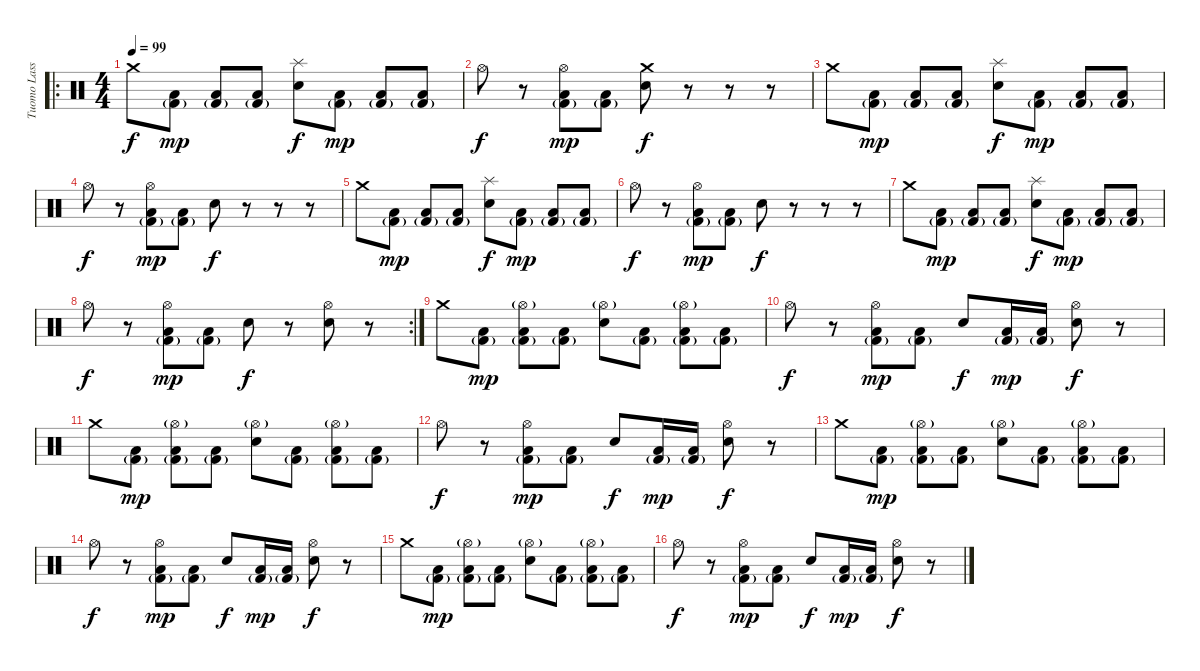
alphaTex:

\track ("Tuomo Lassila" "Tuomo Lass") {instrument percussion}
\staff {score}
\articulation defaults
\ro
\ts (4 4)
\tempo 99
\clef neutral
\ks c "Crash medium (hit)".8{dy f balance 8}
("Kick (hit) 2"{g} "Low Floor Tom (hit)").8{dy mp} ("Kick (hit) 2"{g} "Low Floor Tom (hit)").8 ("Kick (hit) 2"{g} "Low Floor Tom (hit)").8 ("Splash (hit)" "Electric Snare (hit)").8{dy f} ("Kick (hit) 2"{g} "Low Floor Tom (hit)").8{dy mp} ("Kick (hit) 2"{g} "Low Floor Tom (hit)").8 ("Kick (hit) 2"{g} "Low Floor Tom (hit)").8 |
"Hi-Hat (open)".8{dy f} r.8 ("Hi-Hat (open)" "Kick (hit) 2"{g} "Low Floor Tom (hit)").8{dy mp} ("Kick (hit) 2"{g} "Low Floor Tom (hit)").8 ("Crash medium (hit)" "Electric Snare (hit)").8{dy f} r.8 r.8 r.8 |
"Crash medium (hit)".8 ("Kick (hit) 2"{g} "Low Floor Tom (hit)").8{dy mp} ("Kick (hit) 2"{g} "Low Floor Tom (hit)").8 ("Kick (hit) 2"{g} "Low Floor Tom (hit)").8 ("Splash (hit)" "Electric Snare (hit)").8{dy f} ("Kick (hit) 2"{g} "Low Floor Tom (hit)").8{dy mp} ("Kick (hit) 2"{g} "Low Floor Tom (hit)").8 ("Kick (hit) 2"{g} "Low Floor Tom (hit)").8 |
"Hi-Hat (open)".8{dy f} r.8 ("Hi-Hat (open)" "Kick (hit) 2"{g} "Low Floor Tom (hit)").8{dy mp} ("Kick (hit) 2"{g} "Low Floor Tom (hit)").8 "Electric Snare (hit)".8{dy f} r.8 r.8 r.8 |
"Crash medium (hit)".8 ("Kick (hit) 2"{g} "Low Floor Tom (hit)").8{dy mp} ("Kick (hit) 2"{g} "Low Floor Tom (hit)").8 ("Kick (hit) 2"{g} "Low Floor Tom (hit)").8 ("Splash (hit)" "Electric Snare (hit)").8{dy f} ("Kick (hit) 2"{g} "Low Floor Tom (hit)").8{dy mp} ("Kick (hit) 2"{g} "Low Floor Tom (hit)").8 ("Kick (hit) 2"{g} "Low Floor Tom (hit)").8 |
"Hi-Hat (open)".8{dy f} r.8 ("Hi-Hat (open)" "Kick (hit) 2"{g} "Low Floor Tom (hit)").8{dy mp} ("Kick (hit) 2"{g} "Low Floor Tom (hit)").8 "Electric Snare (hit)".8{dy f} r.8 r.8 r.8 |
"Crash medium (hit)".8 ("Kick (hit) 2"{g} "Low Floor Tom (hit)").8{dy mp} ("Kick (hit) 2"{g} "Low Floor Tom (hit)").8 ("Kick (hit) 2"{g} "Low Floor Tom (hit)").8 ("Splash (hit)" "Electric Snare (hit)").8{dy f} ("Kick (hit) 2"{g} "Low Floor Tom (hit)").8{dy mp} ("Kick (hit) 2"{g} "Low Floor Tom (hit)").8 ("Kick (hit) 2"{g} "Low Floor Tom (hit)").8 |
\rc 2 "Hi-Hat (open)".8{dy f}
r.8 ("Hi-Hat (open)" "Kick (hit) 2"{g} "Low Floor Tom (hit)").8{dy mp} ("Kick (hit) 2"{g} "Low Floor Tom (hit)").8 "Electric Snare (hit)".8{dy f} r.8 ("Electric Snare (hit)" "Hi-Hat (open)").8 r.8 |
"Crash medium (hit)".8{volume 4} ("Kick (hit) 2"{g} "Low Floor Tom (hit)").8{dy mp} ("Kick (hit) 2"{g} "Low Floor Tom (hit)" "Hi-Hat (open)"{g}).8 ("Kick (hit) 2"{g} "Low Floor Tom (hit)").8 ("Electric Snare (hit)" "Hi-Hat (open)"{g}).8 ("Kick (hit) 2"{g} "Low Floor Tom (hit)").8 ("Kick (hit) 2"{g} "Low Floor Tom (hit)" "Hi-Hat (open)"{g}).8 ("Kick (hit) 2"{g} "Low Floor Tom (hit)").8 |
"Hi-Hat (open)".8{dy f} r.8 ("Hi-Hat (open)" "Kick (hit) 2"{g} "Low Floor Tom (hit)").8{dy mp} ("Kick (hit) 2"{g} "Low Floor Tom (hit)").8 "Electric Snare (hit)".8{dy f} ("Kick (hit) 2"{g} "Low Floor Tom (hit)").16{dy mp} ("Kick (hit) 2"{g} "Low Floor Tom (hit)").16 ("Hi-Hat (open)" "Electric Snare (hit)").8{dy f} r.8 |
"Crash medium (hit)".8 ("Kick (hit) 2"{g} "Low Floor Tom (hit)").8{dy mp} ("Kick (hit) 2"{g} "Low Floor Tom (hit)" "Hi-Hat (open)"{g}).8 ("Kick (hit) 2"{g} "Low Floor Tom (hit)").8 ("Electric Snare (hit)" "Hi-Hat (open)"{g}).8 ("Kick (hit) 2"{g} "Low Floor Tom (hit)").8 ("Kick (hit) 2"{g} "Low Floor Tom (hit)" "Hi-Hat (open)"{g}).8 ("Kick (hit) 2"{g} "Low Floor Tom (hit)").8 |
"Hi-Hat (open)".8{dy f} r.8 ("Hi-Hat (open)" "Kick (hit) 2"{g} "Low Floor Tom (hit)").8{dy mp} ("Kick (hit) 2"{g} "Low Floor Tom (hit)").8 "Electric Snare (hit)".8{dy f} ("Kick (hit) 2"{g} "Low Floor Tom (hit)").16{dy mp} ("Kick (hit) 2"{g} "Low Floor Tom (hit)").16 ("Hi-Hat (open)" "Electric Snare (hit)").8{dy f} r.8 |
"Crash medium (hit)".8{volume 0} ("Kick (hit) 2"{g} "Low Floor Tom (hit)").8{dy mp} ("Kick (hit) 2"{g} "Low Floor Tom (hit)" "Hi-Hat (open)"{g}).8 ("Kick (hit) 2"{g} "Low Floor Tom (hit)").8 ("Electric Snare (hit)" "Hi-Hat (open)"{g}).8 ("Kick (hit) 2"{g} "Low Floor Tom (hit)").8 ("Kick (hit) 2"{g} "Low Floor Tom (hit)" "Hi-Hat (open)"{g}).8 ("Kick (hit) 2"{g} "Low Floor Tom (hit)").8 |
"Hi-Hat (open)".8{dy f} r.8 ("Hi-Hat (open)" "Kick (hit) 2"{g} "Low Floor Tom (hit)").8{dy mp} ("Kick (hit) 2"{g} "Low Floor Tom (hit)").8 "Electric Snare (hit)".8{dy f} ("Kick (hit) 2"{g} "Low Floor Tom (hit)").16{dy mp} ("Kick (hit) 2"{g} "Low Floor Tom (hit)").16 ("Hi-Hat (open)" "Electric Snare (hit)").8{dy f} r.8 |
"Crash medium (hit)".8 ("Kick (hit) 2"{g} "Low Floor Tom (hit)").8{dy mp} ("Kick (hit) 2"{g} "Low Floor Tom (hit)" "Hi-Hat (open)"{g}).8 ("Kick (hit) 2"{g} "Low Floor Tom (hit)").8 ("Electric Snare (hit)" "Hi-Hat (open)"{g}).8 ("Kick (hit) 2"{g} "Low Floor Tom (hit)").8 ("Kick (hit) 2"{g} "Low Floor Tom (hit)" "Hi-Hat (open)"{g}).8 ("Kick (hit) 2"{g} "Low Floor Tom (hit)").8 |
"Hi-Hat (open)".8{dy f} r.8 ("Hi-Hat (open)" "Kick (hit) 2"{g} "Low Floor Tom (hit)").8{dy mp} ("Kick (hit) 2"{g} "Low Floor Tom (hit)").8 "Electric Snare (hit)".8{dy f} ("Kick (hit) 2"{g} "Low Floor Tom (hit)").16{dy mp} ("Kick (hit) 2"{g} "Low Floor Tom (hit)").16 ("Hi-Hat (open)" "Electric Snare (hit)").8{dy f} r.8
